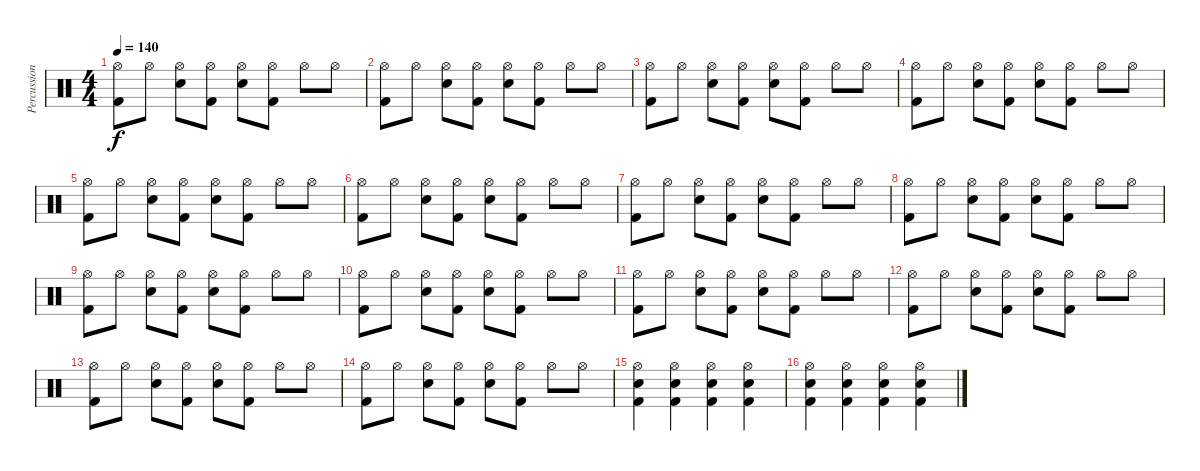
\track ("Percussion" "Percussion") {instrument percussion}
\staff {score}
\articulation defaults
\ts (4 4)
\tempo 140
\clef neutral
\ks c
("Hi-Hat (open)" "Kick (hit) 2").8{dy f} "Hi-Hat (open)".8 ("Hi-Hat (open)" "Snare (hit) 2").8 ("Hi-Hat (open)" "Kick (hit) 2").8 ("Hi-Hat (open)" "Snare (hit) 2").8 ("Hi-Hat (open)" "Kick (hit) 2").8 "Hi-Hat (open)".8 "Hi-Hat (open)".8 |
("Hi-Hat (open)" "Kick (hit) 2").8 "Hi-Hat (open)".8 ("Hi-Hat (open)" "Snare (hit) 2").8 ("Hi-Hat (open)" "Kick (hit) 2").8 ("Hi-Hat (open)" "Snare (hit) 2").8 ("Hi-Hat (open)" "Kick (hit) 2").8 "Hi-Hat (open)".8 "Hi-Hat (open)".8 |
("Hi-Hat (open)" "Kick (hit) 2").8 "Hi-Hat (open)".8 ("Hi-Hat (open)" "Snare (hit) 2").8 ("Hi-Hat (open)" "Kick (hit) 2").8 ("Hi-Hat (open)" "Snare (hit) 2").8 ("Hi-Hat (open)" "Kick (hit) 2").8 "Hi-Hat (open)".8 "Hi-Hat (open)".8 |
("Hi-Hat (open)" "Kick (hit) 2").8 "Hi-Hat (open)".8 ("Hi-Hat (open)" "Snare (hit) 2").8 ("Hi-Hat (open)" "Kick (hit) 2").8 ("Hi-Hat (open)" "Snare (hit) 2").8 ("Hi-Hat (open)" "Kick (hit) 2").8 "Hi-Hat (open)".8 "Hi-Hat (open)".8 |
("Hi-Hat (open)" "Kick (hit) 2").8 "Hi-Hat (open)".8 ("Hi-Hat (open)" "Snare (hit) 2").8 ("Hi-Hat (open)" "Kick (hit) 2").8 ("Hi-Hat (open)" "Snare (hit) 2").8 ("Hi-Hat (open)" "Kick (hit) 2").8 "Hi-Hat (open)".8 "Hi-Hat (open)".8 |
("Hi-Hat (open)" "Kick (hit) 2").8 "Hi-Hat (open)".8 ("Hi-Hat (open)" "Snare (hit) 2").8 ("Hi-Hat (open)" "Kick (hit) 2").8 ("Hi-Hat (open)" "Snare (hit) 2").8 ("Hi-Hat (open)" "Kick (hit) 2").8 "Hi-Hat (open)".8 "Hi-Hat (open)".8 |
("Hi-Hat (open)" "Kick (hit) 2").8 "Hi-Hat (open)".8 ("Hi-Hat (open)" "Snare (hit) 2").8 ("Hi-Hat (open)" "Kick (hit) 2").8 ("Hi-Hat (open)" "Snare (hit) 2").8 ("Hi-Hat (open)" "Kick (hit) 2").8 "Hi-Hat (open)".8 "Hi-Hat (open)".8 |
("Hi-Hat (open)" "Kick (hit) 2").8 "Hi-Hat (open)".8 ("Hi-Hat (open)" "Snare (hit) 2").8 ("Hi-Hat (open)" "Kick (hit) 2").8 ("Hi-Hat (open)" "Snare (hit) 2").8 ("Hi-Hat (open)" "Kick (hit) 2").8 "Hi-Hat (open)".8 "Hi-Hat (open)".8 |
("Hi-Hat (open)" "Kick (hit) 2").8 "Hi-Hat (open)".8 ("Hi-Hat (open)" "Snare (hit) 2").8 ("Hi-Hat (open)" "Kick (hit) 2").8 ("Hi-Hat (open)" "Snare (hit) 2").8 ("Hi-Hat (open)" "Kick (hit) 2").8 "Hi-Hat (open)".8 "Hi-Hat (open)".8 |
("Hi-Hat (open)" "Kick (hit) 2").8 "Hi-Hat (open)".8 ("Hi-Hat (open)" "Snare (hit) 2").8 ("Hi-Hat (open)" "Kick (hit) 2").8 ("Hi-Hat (open)" "Snare (hit) 2").8 ("Hi-Hat (open)" "Kick (hit) 2").8 "Hi-Hat (open)".8 "Hi-Hat (open)".8 |
("Hi-Hat (open)" "Kick (hit) 2").8 "Hi-Hat (open)".8 ("Hi-Hat (open)" "Snare (hit) 2").8 ("Hi-Hat (open)" "Kick (hit) 2").8 ("Hi-Hat (open)" "Snare (hit) 2").8 ("Hi-Hat (open)" "Kick (hit) 2").8 "Hi-Hat (open)".8 "Hi-Hat (open)".8 |
("Hi-Hat (open)" "Kick (hit) 2").8 "Hi-Hat (open)".8 ("Hi-Hat (open)" "Snare (hit) 2").8 ("Hi-Hat (open)" "Kick (hit) 2").8 ("Hi-Hat (open)" "Snare (hit) 2").8 ("Hi-Hat (open)" "Kick (hit) 2").8 "Hi-Hat (open)".8 "Hi-Hat (open)".8 |
("Hi-Hat (open)" "Kick (hit) 2").8 "Hi-Hat (open)".8 ("Hi-Hat (open)" "Snare (hit) 2").8 ("Hi-Hat (open)" "Kick (hit) 2").8 ("Hi-Hat (open)" "Snare (hit) 2").8 ("Hi-Hat (open)" "Kick (hit) 2").8 "Hi-Hat (open)".8 "Hi-Hat (open)".8 |
("Hi-Hat (open)" "Kick (hit) 2").8 "Hi-Hat (open)".8 ("Hi-Hat (open)" "Snare (hit) 2").8 ("Hi-Hat (open)" "Kick (hit) 2").8 ("Hi-Hat (open)" "Snare (hit) 2").8 ("Hi-Hat (open)" "Kick (hit) 2").8 "Hi-Hat (open)".8 "Hi-Hat (open)".8 |
("Hi-Hat (open)" "Snare (hit) 2" "Kick (hit) 2").4 ("Hi-Hat (open)" "Snare (hit) 2" "Kick (hit) 2").4 ("Hi-Hat (open)" "Snare (hit) 2" "Kick (hit) 2").4 ("Hi-Hat (open)" "Snare (hit) 2" "Kick (hit) 2").4 |
("Hi-Hat (open)" "Snare (hit) 2" "Kick (hit) 2").4 ("Hi-Hat (open)" "Snare (hit) 2" "Kick (hit) 2").4 ("Hi-Hat (open)" "Snare (hit) 2" "Kick (hit) 2").4 ("Hi-Hat (open)" "Snare (hit) 2" "Kick (hit) 2").4
